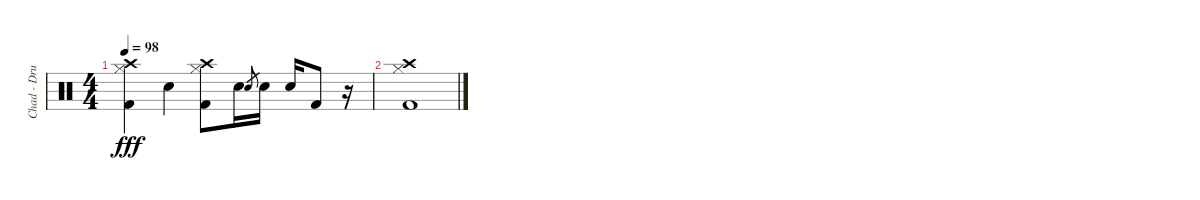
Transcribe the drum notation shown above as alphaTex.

\track ("Chad - Drums" "Chad - Dru") {instrument percussion}
\staff {score}
\articulation defaults
\ts (4 4)
\tempo 98
\clef neutral
\ks c
("Hi-Hat (closed)" "Crash high (hit)" "Kick (hit) 2").4{dy fff} "Snare (hit) 2".4 ("Hi-Hat (closed)" "Crash high (hit)" "Kick (hit) 2").8 "Snare (hit) 2".16 "Snare (hit) 2".8{gr} "Snare (hit) 2".16 "Snare (hit) 2".16 "Kick (hit) 2".8 r.16 |
("Hi-Hat (closed)" "Crash high (hit)" "Kick (hit) 2").1
